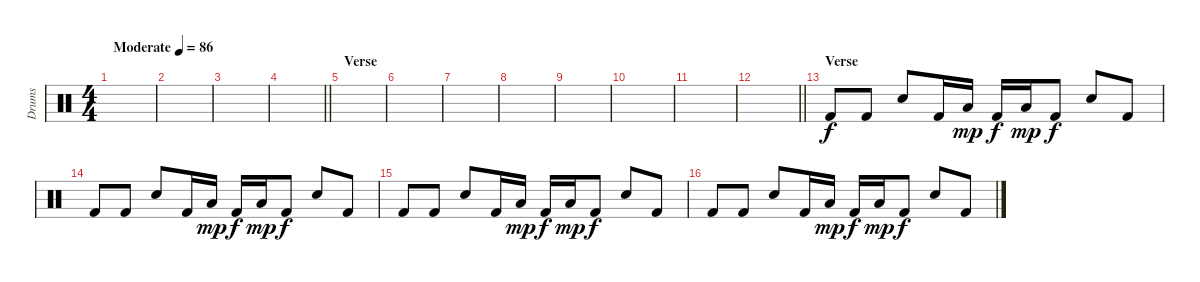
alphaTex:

\track ("Drums" "Drums") {instrument percussion}
\staff {score}
\articulation defaults
\ts (4 4)
\tempo (86 "Moderate")
\clef neutral
\ks c
|
|
|
\barLineRight lightlight
|
\section ("" "Verse")
|
|
|
|
|
|
|
\barLineRight lightlight
|
\section ("" "Verse")
"Kick (hit) 2".8 "Kick (hit) 2".8 "Electric Snare (hit)".8 "Kick (hit) 2".16 "Low Floor Tom (hit)".16{dy mp} "Kick (hit) 2".16{dy f} "Low Floor Tom (hit)".16{dy mp} "Kick (hit) 2".8{dy f} "Electric Snare (hit)".8 "Kick (hit) 2".8 |
"Kick (hit) 2".8 "Kick (hit) 2".8 "Electric Snare (hit)".8 "Kick (hit) 2".16 "Low Floor Tom (hit)".16{dy mp} "Kick (hit) 2".16{dy f} "Low Floor Tom (hit)".16{dy mp} "Kick (hit) 2".8{dy f} "Electric Snare (hit)".8 "Kick (hit) 2".8 |
"Kick (hit) 2".8 "Kick (hit) 2".8 "Electric Snare (hit)".8 "Kick (hit) 2".16 "Low Floor Tom (hit)".16{dy mp} "Kick (hit) 2".16{dy f} "Low Floor Tom (hit)".16{dy mp} "Kick (hit) 2".8{dy f} "Electric Snare (hit)".8 "Kick (hit) 2".8 |
"Kick (hit) 2".8 "Kick (hit) 2".8 "Electric Snare (hit)".8 "Kick (hit) 2".16 "Low Floor Tom (hit)".16{dy mp} "Kick (hit) 2".16{dy f} "Low Floor Tom (hit)".16{dy mp} "Kick (hit) 2".8{dy f} "Electric Snare (hit)".8 "Kick (hit) 2".8
